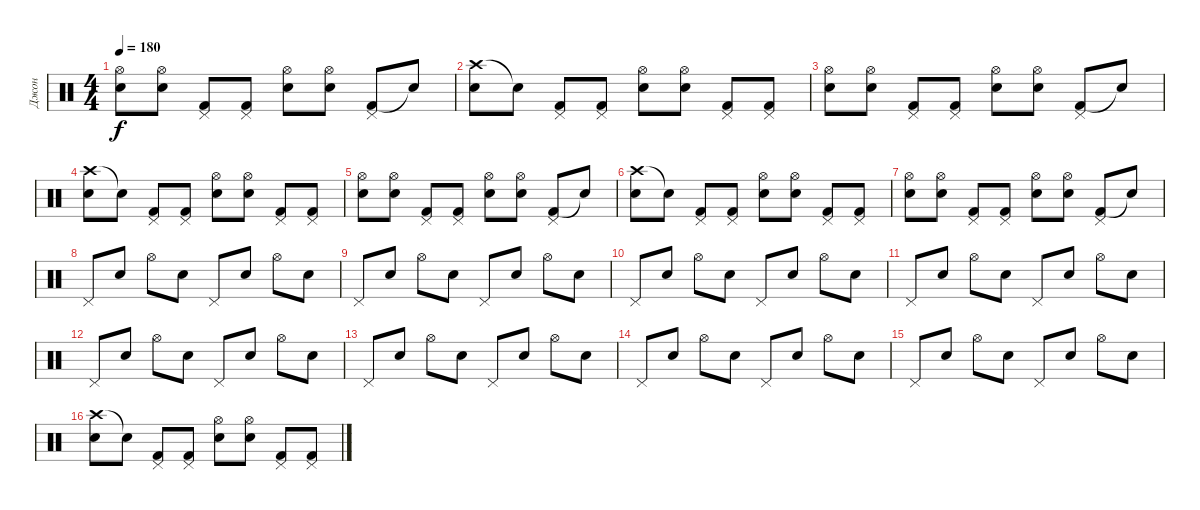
\track ("Джон" "Джон") {instrument percussion}
\staff {score}
\articulation defaults
\ts (4 4)
\tempo 180
\clef neutral
\ks c
("Snare (hit) 2" "Hi-Hat (open)").8{dy f} ("Snare (hit) 2" "Hi-Hat (open)").8 ("Kick (hit) 2" "Pedal Hi-Hat (hit)").8 ("Kick (hit) 2" "Pedal Hi-Hat (hit)").8 ("Snare (hit) 2" "Hi-Hat (open)").8 ("Snare (hit) 2" "Hi-Hat (open)").8 ("Kick (hit) 2" "Pedal Hi-Hat (hit)").8 "Snare (hit)"{t}.8 |
("Crash high (hit)" "Electric Snare (hit)").8 "Snare (hit)"{t}.8 ("Kick (hit) 2" "Pedal Hi-Hat (hit)").8 ("Kick (hit) 2" "Pedal Hi-Hat (hit)").8 ("Snare (hit) 2" "Hi-Hat (open)").8 ("Snare (hit) 2" "Hi-Hat (open)").8 ("Kick (hit) 2" "Pedal Hi-Hat (hit)").8 ("Kick (hit) 2" "Pedal Hi-Hat (hit)").8 |
("Snare (hit) 2" "Hi-Hat (open)").8 ("Snare (hit) 2" "Hi-Hat (open)").8 ("Kick (hit) 2" "Pedal Hi-Hat (hit)").8 ("Kick (hit) 2" "Pedal Hi-Hat (hit)").8 ("Snare (hit) 2" "Hi-Hat (open)").8 ("Snare (hit) 2" "Hi-Hat (open)").8 ("Kick (hit) 2" "Pedal Hi-Hat (hit)").8 "Snare (hit)"{t}.8 |
("Crash high (hit)" "Electric Snare (hit)").8 "Snare (hit)"{t}.8 ("Kick (hit) 2" "Pedal Hi-Hat (hit)").8 ("Kick (hit) 2" "Pedal Hi-Hat (hit)").8 ("Snare (hit) 2" "Hi-Hat (open)").8 ("Snare (hit) 2" "Hi-Hat (open)").8 ("Kick (hit) 2" "Pedal Hi-Hat (hit)").8 ("Kick (hit) 2" "Pedal Hi-Hat (hit)").8 |
("Snare (hit) 2" "Hi-Hat (open)").8 ("Snare (hit) 2" "Hi-Hat (open)").8 ("Kick (hit) 2" "Pedal Hi-Hat (hit)").8 ("Kick (hit) 2" "Pedal Hi-Hat (hit)").8 ("Snare (hit) 2" "Hi-Hat (open)").8 ("Snare (hit) 2" "Hi-Hat (open)").8 ("Kick (hit) 2" "Pedal Hi-Hat (hit)").8 "Snare (hit)"{t}.8 |
("Crash high (hit)" "Electric Snare (hit)").8 "Snare (hit)"{t}.8 ("Kick (hit) 2" "Pedal Hi-Hat (hit)").8 ("Kick (hit) 2" "Pedal Hi-Hat (hit)").8 ("Snare (hit) 2" "Hi-Hat (open)").8 ("Snare (hit) 2" "Hi-Hat (open)").8 ("Kick (hit) 2" "Pedal Hi-Hat (hit)").8 ("Kick (hit) 2" "Pedal Hi-Hat (hit)").8 |
("Snare (hit) 2" "Hi-Hat (open)").8 ("Snare (hit) 2" "Hi-Hat (open)").8 ("Kick (hit) 2" "Pedal Hi-Hat (hit)").8 ("Kick (hit) 2" "Pedal Hi-Hat (hit)").8 ("Snare (hit) 2" "Hi-Hat (open)").8 ("Snare (hit) 2" "Hi-Hat (open)").8 ("Kick (hit) 2" "Pedal Hi-Hat (hit)").8 "Snare (hit)"{t}.8 |
"Pedal Hi-Hat (hit)".8 "Snare (hit)".8 "Hi-Hat (open)".8 "Snare (hit)".8 "Pedal Hi-Hat (hit)".8 "Snare (hit)".8 "Hi-Hat (open)".8 "Snare (hit)".8 |
"Pedal Hi-Hat (hit)".8 "Snare (hit)".8 "Hi-Hat (open)".8 "Snare (hit)".8 "Pedal Hi-Hat (hit)".8 "Snare (hit)".8 "Hi-Hat (open)".8 "Snare (hit)".8 |
"Pedal Hi-Hat (hit)".8 "Snare (hit)".8 "Hi-Hat (open)".8 "Snare (hit)".8 "Pedal Hi-Hat (hit)".8 "Snare (hit)".8 "Hi-Hat (open)".8 "Snare (hit)".8 |
"Pedal Hi-Hat (hit)".8 "Snare (hit)".8 "Hi-Hat (open)".8 "Snare (hit)".8 "Pedal Hi-Hat (hit)".8 "Snare (hit)".8 "Hi-Hat (open)".8 "Snare (hit)".8 |
"Pedal Hi-Hat (hit)".8 "Snare (hit)".8 "Hi-Hat (open)".8 "Snare (hit)".8 "Pedal Hi-Hat (hit)".8 "Snare (hit)".8 "Hi-Hat (open)".8 "Snare (hit)".8 |
"Pedal Hi-Hat (hit)".8 "Snare (hit)".8 "Hi-Hat (open)".8 "Snare (hit)".8 "Pedal Hi-Hat (hit)".8 "Snare (hit)".8 "Hi-Hat (open)".8 "Snare (hit)".8 |
"Pedal Hi-Hat (hit)".8 "Snare (hit)".8 "Hi-Hat (open)".8 "Snare (hit)".8 "Pedal Hi-Hat (hit)".8 "Snare (hit)".8 "Hi-Hat (open)".8 "Snare (hit)".8 |
"Pedal Hi-Hat (hit)".8 "Snare (hit)".8 "Hi-Hat (open)".8 "Snare (hit)".8 "Pedal Hi-Hat (hit)".8 "Snare (hit)".8 "Hi-Hat (open)".8 "Snare (hit)".8 |
("Crash high (hit)" "Electric Snare (hit)").8 "Snare (hit)"{t}.8 ("Kick (hit) 2" "Pedal Hi-Hat (hit)").8 ("Kick (hit) 2" "Pedal Hi-Hat (hit)").8 ("Snare (hit) 2" "Hi-Hat (open)").8 ("Snare (hit) 2" "Hi-Hat (open)").8 ("Kick (hit) 2" "Pedal Hi-Hat (hit)").8 ("Kick (hit) 2" "Pedal Hi-Hat (hit)").8
